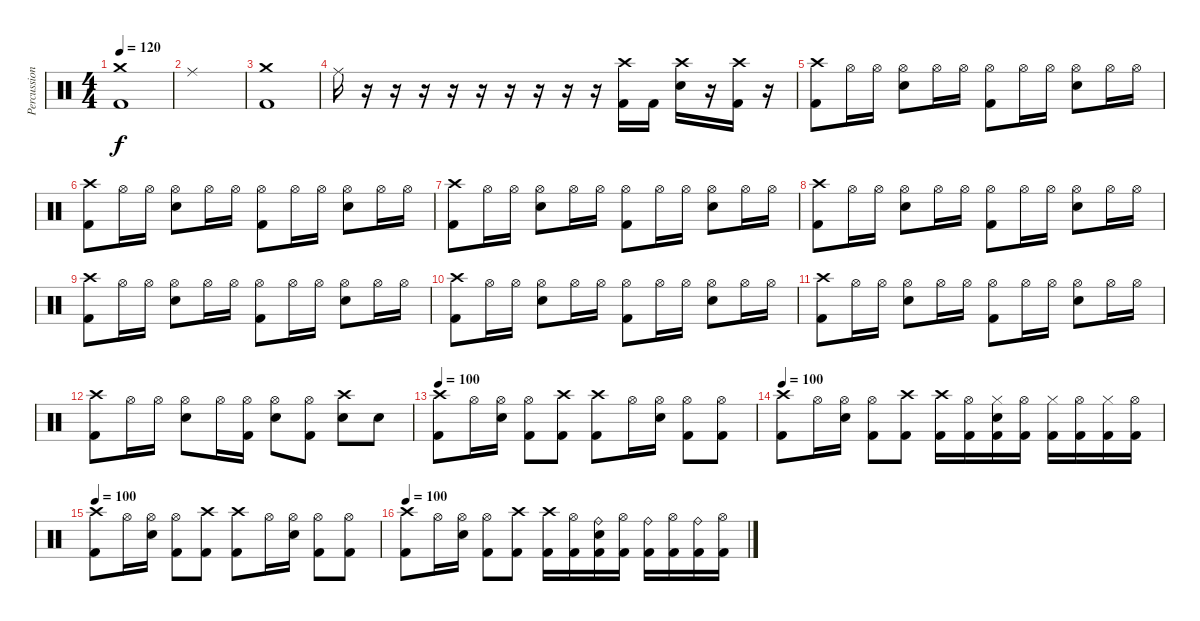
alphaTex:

\track ("Percussion" "Percussion") {instrument percussion}
\staff {score}
\articulation defaults
\ts (4 4)
\tempo 120
\clef neutral
\ks c
("Crash medium (hit)" "Kick (hit) 2").1{dy f} |
"Ride (middle)".1 |
("Crash medium (hit)" "Kick (hit) 2").1 |
"Ride (middle)".16 r.16 r.16 r.16 r.16 r.16 r.16 r.16 r.16 r.16 ("Crash high (hit)" "Kick (hit) 2").16 "Kick (hit) 2".16 ("Crash high (hit)" "Snare (hit) 2").16 r.16 ("Crash high (hit)" "Kick (hit) 2").16 r.16 |
("Crash high (hit)" "Kick (hit) 2").8 "Hi-Hat (open)".16 "Hi-Hat (open)".16 ("Hi-Hat (open)" "Snare (hit) 2").8 "Hi-Hat (open)".16 "Hi-Hat (open)".16 ("Hi-Hat (open)" "Kick (hit) 2").8 "Hi-Hat (open)".16 "Hi-Hat (open)".16 ("Hi-Hat (open)" "Snare (hit) 2").8 "Hi-Hat (open)".16 "Hi-Hat (open)".16 |
("Crash high (hit)" "Kick (hit) 2").8 "Hi-Hat (open)".16 "Hi-Hat (open)".16 ("Hi-Hat (open)" "Snare (hit) 2").8 "Hi-Hat (open)".16 "Hi-Hat (open)".16 ("Hi-Hat (open)" "Kick (hit) 2").8 "Hi-Hat (open)".16 "Hi-Hat (open)".16 ("Hi-Hat (open)" "Snare (hit) 2").8 "Hi-Hat (open)".16 "Hi-Hat (open)".16 |
("Crash high (hit)" "Kick (hit) 2").8 "Hi-Hat (open)".16 "Hi-Hat (open)".16 ("Hi-Hat (open)" "Snare (hit) 2").8 "Hi-Hat (open)".16 "Hi-Hat (open)".16 ("Hi-Hat (open)" "Kick (hit) 2").8 "Hi-Hat (open)".16 "Hi-Hat (open)".16 ("Hi-Hat (open)" "Snare (hit) 2").8 "Hi-Hat (open)".16 "Hi-Hat (open)".16 |
("Crash high (hit)" "Kick (hit) 2").8 "Hi-Hat (open)".16 "Hi-Hat (open)".16 ("Hi-Hat (open)" "Snare (hit) 2").8 "Hi-Hat (open)".16 "Hi-Hat (open)".16 ("Hi-Hat (open)" "Kick (hit) 2").8 "Hi-Hat (open)".16 "Hi-Hat (open)".16 ("Hi-Hat (open)" "Snare (hit) 2").8 "Hi-Hat (open)".16 "Hi-Hat (open)".16 |
("Crash high (hit)" "Kick (hit) 2").8 "Hi-Hat (open)".16 "Hi-Hat (open)".16 ("Hi-Hat (open)" "Snare (hit) 2").8 "Hi-Hat (open)".16 "Hi-Hat (open)".16 ("Hi-Hat (open)" "Kick (hit) 2").8 "Hi-Hat (open)".16 "Hi-Hat (open)".16 ("Hi-Hat (open)" "Snare (hit) 2").8 "Hi-Hat (open)".16 "Hi-Hat (open)".16 |
("Crash high (hit)" "Kick (hit) 2").8 "Hi-Hat (open)".16 "Hi-Hat (open)".16 ("Hi-Hat (open)" "Snare (hit) 2").8 "Hi-Hat (open)".16 "Hi-Hat (open)".16 ("Hi-Hat (open)" "Kick (hit) 2").8 "Hi-Hat (open)".16 "Hi-Hat (open)".16 ("Hi-Hat (open)" "Snare (hit) 2").8 "Hi-Hat (open)".16 "Hi-Hat (open)".16 |
("Crash high (hit)" "Kick (hit) 2").8 "Hi-Hat (open)".16 "Hi-Hat (open)".16 ("Hi-Hat (open)" "Snare (hit) 2").8 "Hi-Hat (open)".16 "Hi-Hat (open)".16 ("Hi-Hat (open)" "Kick (hit) 2").8 "Hi-Hat (open)".16 "Hi-Hat (open)".16 ("Hi-Hat (open)" "Snare (hit) 2").8 "Hi-Hat (open)".16 "Hi-Hat (open)".16 |
("Crash high (hit)" "Kick (hit) 2").8 "Hi-Hat (open)".16 "Hi-Hat (open)".16 ("Hi-Hat (open)" "Snare (hit) 2").8 "Hi-Hat (open)".16 ("Hi-Hat (open)" "Kick (hit) 2").16 ("Hi-Hat (open)" "Snare (hit) 2").8 ("Hi-Hat (open)" "Kick (hit) 2").8 ("Crash high (hit)" "Snare (hit) 2").8 "Snare (hit) 2".8 |
\tempo 100
("Crash high (hit)" "Kick (hit) 2").8 "Hi-Hat (open)".16 ("Hi-Hat (open)" "Snare (hit) 2").16 ("Hi-Hat (open)" "Kick (hit) 2").8 ("Crash high (hit)" "Kick (hit) 2").8 ("Crash high (hit)" "Kick (hit) 2").8 "Hi-Hat (open)".16 ("Hi-Hat (open)" "Snare (hit) 2").16 ("Hi-Hat (open)" "Kick (hit) 2").8 ("Hi-Hat (open)" "Kick (hit) 2").8 |
\tempo 100
("Crash high (hit)" "Kick (hit) 2").8 "Hi-Hat (open)".16 ("Hi-Hat (open)" "Snare (hit) 2").16 ("Hi-Hat (open)" "Kick (hit) 2").8 ("Crash high (hit)" "Kick (hit) 2").8 ("Crash high (hit)" "Kick (hit) 2").16 ("Hi-Hat (open)" "Kick (hit) 2").16 ("Hi-Hat (closed)" "Snare (hit) 2" "Kick (hit) 2").16 ("Hi-Hat (open)" "Kick (hit) 2").16 ("Hi-Hat (closed)" "Kick (hit) 2").16 ("Hi-Hat (open)" "Kick (hit) 2").16 ("Hi-Hat (closed)" "Kick (hit) 2").16 ("Hi-Hat (open)" "Kick (hit) 2").16 |
\tempo 100
("Crash high (hit)" "Kick (hit) 2").8 "Hi-Hat (open)".16 ("Hi-Hat (open)" "Snare (hit) 2").16 ("Hi-Hat (open)" "Kick (hit) 2").8 ("Crash high (hit)" "Kick (hit) 2").8 ("Crash high (hit)" "Kick (hit) 2").8 "Hi-Hat (open)".16 ("Hi-Hat (open)" "Snare (hit) 2").16 ("Hi-Hat (open)" "Kick (hit) 2").8 ("Hi-Hat (open)" "Kick (hit) 2").8 |
\tempo 100
("Crash high (hit)" "Kick (hit) 2").8 "Hi-Hat (open)".16 ("Hi-Hat (open)" "Snare (hit) 2").16 ("Hi-Hat (open)" "Kick (hit) 2").8 ("Crash high (hit)" "Kick (hit) 2").8 ("Crash high (hit)" "Kick (hit) 2").16 ("Hi-Hat (open)" "Kick (hit) 2").16 ("Ride (bell)" "Snare (hit) 2" "Kick (hit) 2").16 ("Hi-Hat (open)" "Kick (hit) 2").16 ("Ride (bell)" "Kick (hit) 2").16 ("Hi-Hat (open)" "Kick (hit) 2").16 ("Ride (bell)" "Kick (hit) 2").16 ("Hi-Hat (open)" "Kick (hit) 2").16
